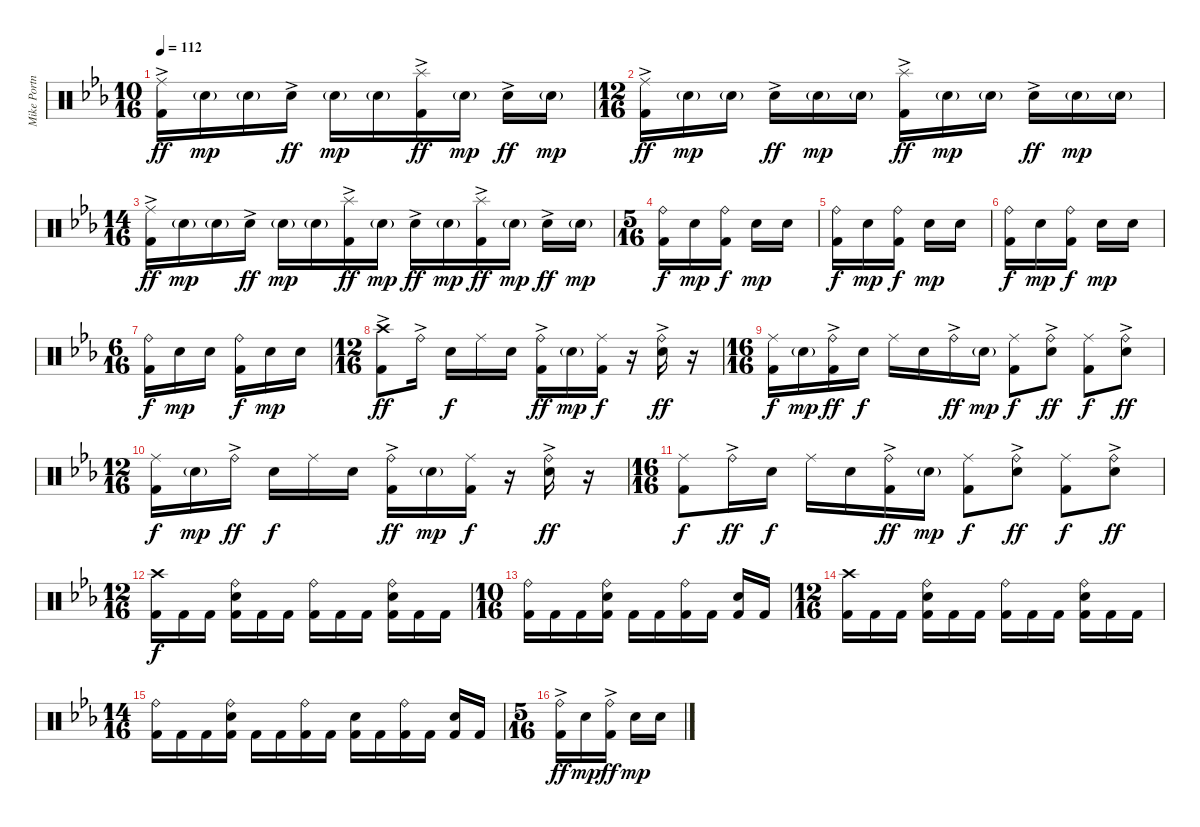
\track ("Mike Portnoy" "Mike Portn") {instrument percussion}
\staff {score}
\articulation defaults
\ts (10 16)
\tempo 112
\clef neutral
\ks eb
("Ride (middle)" "Kick (hit) 2"{ac}).16{dy ff} "Electric Snare (hit)"{g}.16{dy mp} "Electric Snare (hit)"{g}.16 "Electric Snare (hit)"{ac}.16{dy ff} "Electric Snare (hit)"{g}.16{dy mp} "Electric Snare (hit)"{g}.16 ("Splash (hit)" "Kick (hit) 2"{ac}).16{dy ff} "Electric Snare (hit)"{g}.16{dy mp} "Electric Snare (hit)"{ac}.16{dy ff} "Electric Snare (hit)"{g}.16{dy mp} |
\ts (12 16)
("Ride (middle)" "Kick (hit) 2"{ac}).16{dy ff} "Electric Snare (hit)"{g}.16{dy mp} "Electric Snare (hit)"{g}.16 "Electric Snare (hit)"{ac}.16{dy ff} "Electric Snare (hit)"{g}.16{dy mp} "Electric Snare (hit)"{g}.16 ("Splash (hit)" "Kick (hit) 2"{ac}).16{dy ff} "Electric Snare (hit)"{g}.16{dy mp} "Electric Snare (hit)"{g}.16 "Electric Snare (hit)"{ac}.16{dy ff} "Electric Snare (hit)"{g}.16{dy mp} "Electric Snare (hit)"{g}.16 |
\ts (14 16)
("Ride (middle)" "Kick (hit) 2"{ac}).16{dy ff} "Electric Snare (hit)"{g}.16{dy mp} "Electric Snare (hit)"{g}.16 "Electric Snare (hit)"{ac}.16{dy ff} "Electric Snare (hit)"{g}.16{dy mp} "Electric Snare (hit)"{g}.16 ("Splash (hit)" "Kick (hit) 2"{ac}).16{dy ff} "Electric Snare (hit)"{g}.16{dy mp} "Electric Snare (hit)"{ac}.16{dy ff} "Electric Snare (hit)"{g}.16{dy mp} ("Splash (hit)" "Kick (hit) 2"{ac}).16{dy ff} "Electric Snare (hit)"{g}.16{dy mp} "Electric Snare (hit)"{ac}.16{dy ff} "Electric Snare (hit)"{g}.16{dy mp} |
\ts (5 16)
("Ride (bell)" "Kick (hit) 2").16{dy f} "Electric Snare (hit)".16{dy mp} ("Ride (bell)" "Kick (hit) 2").16{dy f} "Electric Snare (hit)".16{dy mp} "Electric Snare (hit)".16 |
("Ride (bell)" "Kick (hit) 2").16{dy f} "Electric Snare (hit)".16{dy mp} ("Ride (bell)" "Kick (hit) 2").16{dy f} "Electric Snare (hit)".16{dy mp} "Electric Snare (hit)".16 |
("Ride (bell)" "Kick (hit) 2").16{dy f} "Electric Snare (hit)".16{dy mp} ("Ride (bell)" "Kick (hit) 2").16{dy f} "Electric Snare (hit)".16{dy mp} "Electric Snare (hit)".16 |
\ts (6 16)
("Ride (bell)" "Kick (hit) 2").16{dy f} "Electric Snare (hit)".16{dy mp} "Electric Snare (hit)".16 ("Ride (bell)" "Kick (hit) 2").16{dy f} "Electric Snare (hit)".16{dy mp} "Electric Snare (hit)".16 |
\ts (12 16)
("Crash high (hit)"{ac} "Kick (hit) 2"{ac}).8{dy ff} "Ride (bell)"{ac}.16 "Electric Snare (hit)".16{dy f} "Ride (middle)".16 "Electric Snare (hit)".16 ("Ride (bell)"{ac} "Kick (hit) 2").16{dy ff} "Electric Snare (hit)"{g}.16{dy mp} ("Ride (middle)" "Kick (hit) 2").16{dy f} r.16 ("Ride (bell)"{ac} "Electric Snare (hit)").16{dy ff} r.16 |
\ts (16 16)
("Ride (middle)" "Kick (hit) 2").16{dy f} "Electric Snare (hit)"{g}.16{dy mp} ("Ride (bell)"{ac} "Kick (hit) 2").16{dy ff} "Electric Snare (hit)".16{dy f} "Ride (middle)".16 "Electric Snare (hit)".16 "Ride (bell)"{ac}.16{dy ff} "Electric Snare (hit)"{g}.16{dy mp} ("Ride (middle)" "Kick (hit) 2").8{dy f} ("Ride (bell)"{ac} "Electric Snare (hit)").8{dy ff} ("Ride (middle)" "Kick (hit) 2").8{dy f} ("Ride (bell)"{ac} "Electric Snare (hit)").8{dy ff} |
\ts (12 16)
("Ride (middle)" "Kick (hit) 2").16{dy f} "Electric Snare (hit)"{g}.16{dy mp} "Ride (bell)"{ac}.16{dy ff} "Electric Snare (hit)".16{dy f} "Ride (middle)".16 "Electric Snare (hit)".16 ("Ride (bell)"{ac} "Kick (hit) 2").16{dy ff} "Electric Snare (hit)"{g}.16{dy mp} ("Ride (middle)" "Kick (hit) 2").16{dy f} r.16 ("Ride (bell)"{ac} "Electric Snare (hit)").16{dy ff} r.16 |
\ts (16 16)
("Ride (middle)" "Kick (hit) 2").8{dy f} "Ride (bell)"{ac}.16{dy ff} "Electric Snare (hit)".16{dy f} "Ride (middle)".16 "Electric Snare (hit)".16 ("Ride (bell)"{ac} "Kick (hit) 2").16{dy ff} "Electric Snare (hit)"{g}.16{dy mp} ("Ride (middle)" "Kick (hit) 2").8{dy f} ("Ride (bell)"{ac} "Electric Snare (hit)").8{dy ff} ("Ride (middle)" "Kick (hit) 2").8{dy f} ("Ride (bell)"{ac} "Electric Snare (hit)").8{dy ff} |
\ts (12 16)
("Crash high (hit)" "Kick (hit) 2").16{dy f} "Kick (hit) 2".16 "Kick (hit) 2".16 ("Ride (bell)" "Electric Snare (hit)" "Kick (hit) 2").16 "Kick (hit) 2".16 "Kick (hit) 2".16 ("Ride (bell)" "Kick (hit) 2").16 "Kick (hit) 2".16 "Kick (hit) 2".16 ("Ride (bell)" "Electric Snare (hit)" "Kick (hit) 2").16 "Kick (hit) 2".16 "Kick (hit) 2".16 |
\ts (10 16)
("Ride (bell)" "Kick (hit) 2").16 "Kick (hit) 2".16 "Kick (hit) 2".16 ("Ride (bell)" "Electric Snare (hit)" "Kick (hit) 2").16 "Kick (hit) 2".16 "Kick (hit) 2".16 ("Ride (bell)" "Kick (hit) 2").16 "Kick (hit) 2".16 ("Electric Snare (hit)" "Kick (hit) 2").16 "Kick (hit) 2".16 |
\ts (12 16)
("Crash high (hit)" "Kick (hit) 2").16 "Kick (hit) 2".16 "Kick (hit) 2".16 ("Ride (bell)" "Electric Snare (hit)" "Kick (hit) 2").16 "Kick (hit) 2".16 "Kick (hit) 2".16 ("Ride (bell)" "Kick (hit) 2").16 "Kick (hit) 2".16 "Kick (hit) 2".16 ("Ride (bell)" "Electric Snare (hit)" "Kick (hit) 2").16 "Kick (hit) 2".16 "Kick (hit) 2".16 |
\ts (14 16)
("Ride (bell)" "Kick (hit) 2").16 "Kick (hit) 2".16 "Kick (hit) 2".16 ("Ride (bell)" "Electric Snare (hit)" "Kick (hit) 2").16 "Kick (hit) 2".16 "Kick (hit) 2".16 ("Ride (bell)" "Kick (hit) 2").16 "Kick (hit) 2".16 ("Electric Snare (hit)" "Kick (hit) 2").16 "Kick (hit) 2".16 ("Ride (bell)" "Kick (hit) 2").16 "Kick (hit) 2".16 ("Electric Snare (hit)" "Kick (hit) 2").16 "Kick (hit) 2".16 |
\ts (5 16)
("Ride (bell)"{ac} "Kick (hit) 2").16{dy ff} "Electric Snare (hit)".16{dy mp} ("Ride (bell)"{ac} "Kick (hit) 2").16{dy ff} "Electric Snare (hit)".16{dy mp} "Electric Snare (hit)".16
